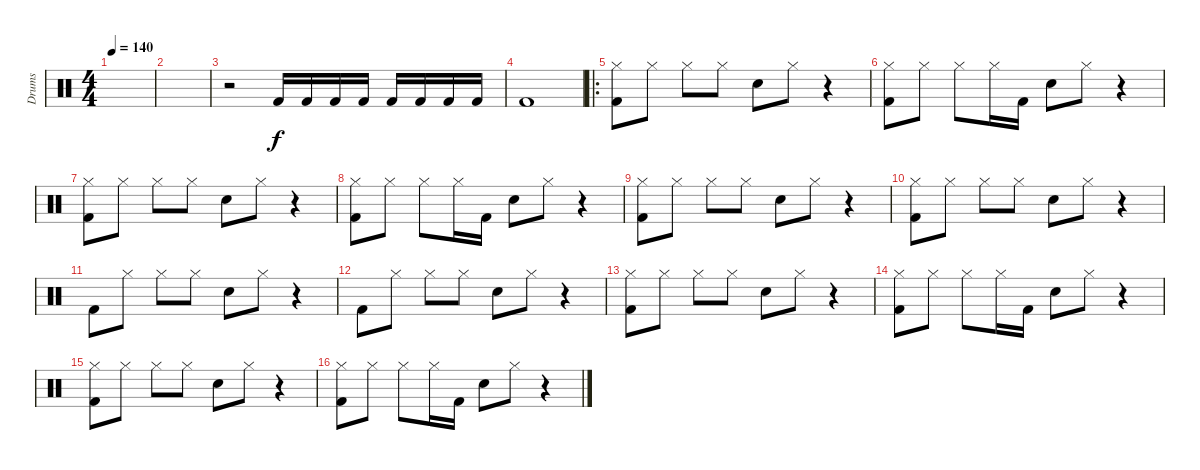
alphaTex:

\track ("Drums" "Drums") {instrument percussion}
\staff {score}
\articulation defaults
\ts (4 4)
\tempo 140
\clef neutral
\ks c
|
|
r.2 "Kick (hit) 2".16 "Kick (hit) 2".16 "Kick (hit) 2".16 "Kick (hit) 2".16 "Kick (hit) 2".16 "Kick (hit) 2".16 "Kick (hit) 2".16 "Kick (hit) 2".16 |
"Kick (hit) 2".1 |
\ro
("Hi-Hat (closed)" "Kick (hit) 2").8 "Hi-Hat (closed)".8 "Hi-Hat (closed)".8 "Hi-Hat (closed)".8 "Snare (hit) 2".8 "Hi-Hat (closed)".8 r.4 |
("Hi-Hat (closed)" "Kick (hit) 2").8 "Hi-Hat (closed)".8 "Hi-Hat (closed)".8 "Hi-Hat (closed)".16 "Kick (hit) 2".16 "Snare (hit) 2".8 "Hi-Hat (closed)".8 r.4 |
("Hi-Hat (closed)" "Kick (hit) 2").8 "Hi-Hat (closed)".8 "Hi-Hat (closed)".8 "Hi-Hat (closed)".8 "Snare (hit) 2".8 "Hi-Hat (closed)".8 r.4 |
("Hi-Hat (closed)" "Kick (hit) 2").8 "Hi-Hat (closed)".8 "Hi-Hat (closed)".8 "Hi-Hat (closed)".16 "Kick (hit) 2".16 "Snare (hit) 2".8 "Hi-Hat (closed)".8 r.4 |
("Hi-Hat (closed)" "Kick (hit) 2").8 "Hi-Hat (closed)".8 "Hi-Hat (closed)".8 "Hi-Hat (closed)".8 "Snare (hit) 2".8 "Hi-Hat (closed)".8 r.4 |
("Hi-Hat (closed)" "Kick (hit) 2").8 "Hi-Hat (closed)".8 "Hi-Hat (closed)".8 "Hi-Hat (closed)".8 "Snare (hit) 2".8 "Hi-Hat (closed)".8 r.4 |
"Kick (hit) 2".8 "Hi-Hat (closed)".8 "Hi-Hat (closed)".8 "Hi-Hat (closed)".8 "Snare (hit) 2".8 "Hi-Hat (closed)".8 r.4 |
"Kick (hit) 2".8 "Hi-Hat (closed)".8 "Hi-Hat (closed)".8 "Hi-Hat (closed)".8 "Snare (hit) 2".8 "Hi-Hat (closed)".8 r.4 |
("Hi-Hat (closed)" "Kick (hit) 2").8 "Hi-Hat (closed)".8 "Hi-Hat (closed)".8 "Hi-Hat (closed)".8 "Snare (hit) 2".8 "Hi-Hat (closed)".8 r.4 |
("Hi-Hat (closed)" "Kick (hit) 2").8 "Hi-Hat (closed)".8 "Hi-Hat (closed)".8 "Hi-Hat (closed)".16 "Kick (hit) 2".16 "Snare (hit) 2".8 "Hi-Hat (closed)".8 r.4 |
("Hi-Hat (closed)" "Kick (hit) 2").8 "Hi-Hat (closed)".8 "Hi-Hat (closed)".8 "Hi-Hat (closed)".8 "Snare (hit) 2".8 "Hi-Hat (closed)".8 r.4 |
("Hi-Hat (closed)" "Kick (hit) 2").8 "Hi-Hat (closed)".8 "Hi-Hat (closed)".8 "Hi-Hat (closed)".16 "Kick (hit) 2".16 "Snare (hit) 2".8 "Hi-Hat (closed)".8 r.4
